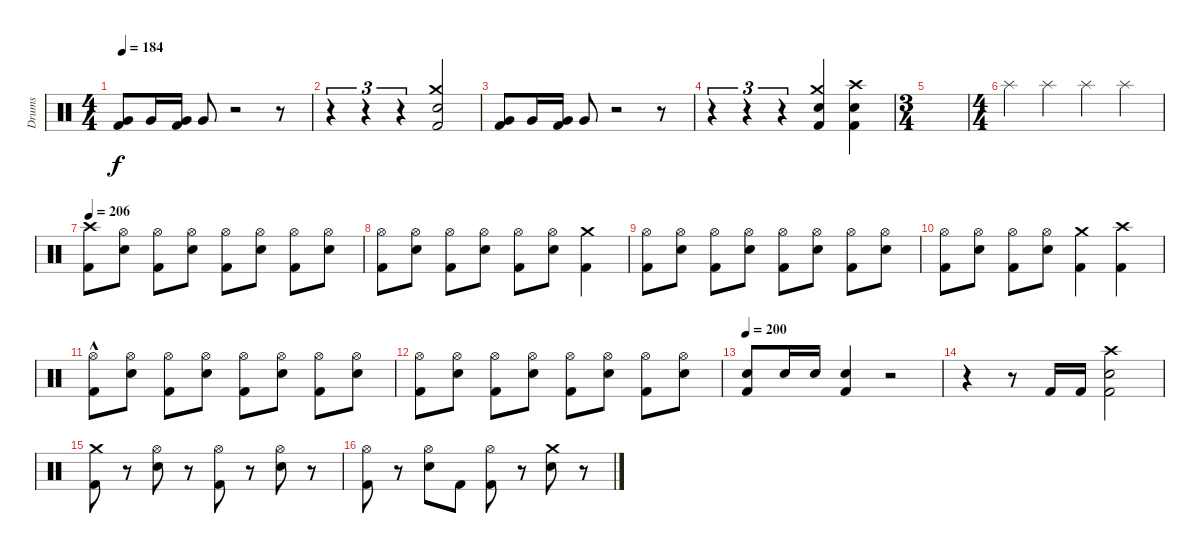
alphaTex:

\track ("Drums" "Drums") {instrument percussion}
\staff {score}
\articulation defaults
\ts (4 4)
\tempo 184
\clef neutral
\ks c
("Very Low Tom (hit)" "Kick (hit) 2").8{dy f} "Very Low Tom (hit)".16 ("Very Low Tom (hit)" "Kick (hit) 2").16 "Very Low Tom (hit)".8 r.2 r.8 |
r.4{tu (3 2)} r.4{tu (3 2)} r.4{tu (3 2)} ("Crash medium (hit)" "Electric Snare (hit)" "Kick (hit) 2").2 |
("Very Low Tom (hit)" "Kick (hit) 2").8 "Very Low Tom (hit)".16 ("Very Low Tom (hit)" "Kick (hit) 2").16 "Very Low Tom (hit)".8 r.2 r.8 |
r.4{tu (3 2)} r.4{tu (3 2)} r.4{tu (3 2)} ("Crash medium (hit)" "Electric Snare (hit)" "Kick (hit) 2").4 ("Crash high (hit)" "Electric Snare (hit)" "Kick (hit) 2").4 |
\ts (3 4)
|
\ts (4 4)
"Splash (hit)".4 "Splash (hit)".4 "Splash (hit)".4 "Splash (hit)".4 |
\tempo 206
("Crash high (hit)" "Kick (hit) 2").8 ("Hi-Hat (open)" "Electric Snare (hit)").8 ("Hi-Hat (open)" "Kick (hit) 2").8 ("Hi-Hat (open)" "Electric Snare (hit)").8 ("Hi-Hat (open)" "Kick (hit) 2").8 ("Hi-Hat (open)" "Electric Snare (hit)").8 ("Hi-Hat (open)" "Kick (hit) 2").8 ("Hi-Hat (open)" "Electric Snare (hit)").8 |
("Hi-Hat (open)" "Kick (hit) 2").8 ("Hi-Hat (open)" "Electric Snare (hit)").8 ("Hi-Hat (open)" "Kick (hit) 2").8 ("Hi-Hat (open)" "Electric Snare (hit)").8 ("Hi-Hat (open)" "Kick (hit) 2").8 ("Hi-Hat (open)" "Electric Snare (hit)").8 ("Crash medium (hit)" "Kick (hit) 2").4 |
("Hi-Hat (open)" "Kick (hit) 2").8 ("Hi-Hat (open)" "Electric Snare (hit)").8 ("Hi-Hat (open)" "Kick (hit) 2").8 ("Hi-Hat (open)" "Electric Snare (hit)").8 ("Hi-Hat (open)" "Kick (hit) 2").8 ("Hi-Hat (open)" "Electric Snare (hit)").8 ("Hi-Hat (open)" "Kick (hit) 2").8 ("Hi-Hat (open)" "Electric Snare (hit)").8 |
("Hi-Hat (open)" "Kick (hit) 2").8 ("Hi-Hat (open)" "Electric Snare (hit)").8 ("Hi-Hat (open)" "Kick (hit) 2").8 ("Hi-Hat (open)" "Electric Snare (hit)").8 ("Crash medium (hit)" "Kick (hit) 2").4 ("Crash high (hit)" "Kick (hit) 2").4 |
("Hi-Hat (open)" "Kick (hit) 2"{hac}).8 ("Hi-Hat (open)" "Electric Snare (hit)").8 ("Hi-Hat (open)" "Kick (hit) 2").8 ("Hi-Hat (open)" "Electric Snare (hit)").8 ("Hi-Hat (open)" "Kick (hit) 2").8 ("Hi-Hat (open)" "Electric Snare (hit)").8 ("Hi-Hat (open)" "Kick (hit) 2").8 ("Hi-Hat (open)" "Electric Snare (hit)").8 |
("Hi-Hat (open)" "Kick (hit) 2").8 ("Hi-Hat (open)" "Electric Snare (hit)").8 ("Hi-Hat (open)" "Kick (hit) 2").8 ("Hi-Hat (open)" "Electric Snare (hit)").8 ("Hi-Hat (open)" "Kick (hit) 2").8 ("Hi-Hat (open)" "Electric Snare (hit)").8 ("Hi-Hat (open)" "Kick (hit) 2").8 ("Hi-Hat (open)" "Electric Snare (hit)").8 |
\tempo 200
("Electric Snare (hit)" "Kick (hit) 2").8 "Electric Snare (hit)".16 "Electric Snare (hit)".16 ("Electric Snare (hit)" "Kick (hit) 2").4 r.2 |
r.4 r.8 "Kick (hit) 2".16 "Kick (hit) 2".16 ("Crash high (hit)" "Electric Snare (hit)" "Kick (hit) 2").2 |
("Crash medium (hit)" "Kick (hit) 2").8 r.8 ("Hi-Hat (open)" "Electric Snare (hit)").8 r.8 ("Hi-Hat (open)" "Kick (hit) 2").8 r.8 ("Hi-Hat (open)" "Electric Snare (hit)").8 r.8 |
("Hi-Hat (open)" "Kick (hit) 2").8 r.8 ("Hi-Hat (open)" "Electric Snare (hit)").8 "Kick (hit) 2".8 ("Hi-Hat (open)" "Kick (hit) 2").8 r.8 ("Crash medium (hit)" "Electric Snare (hit)").8 r.8
